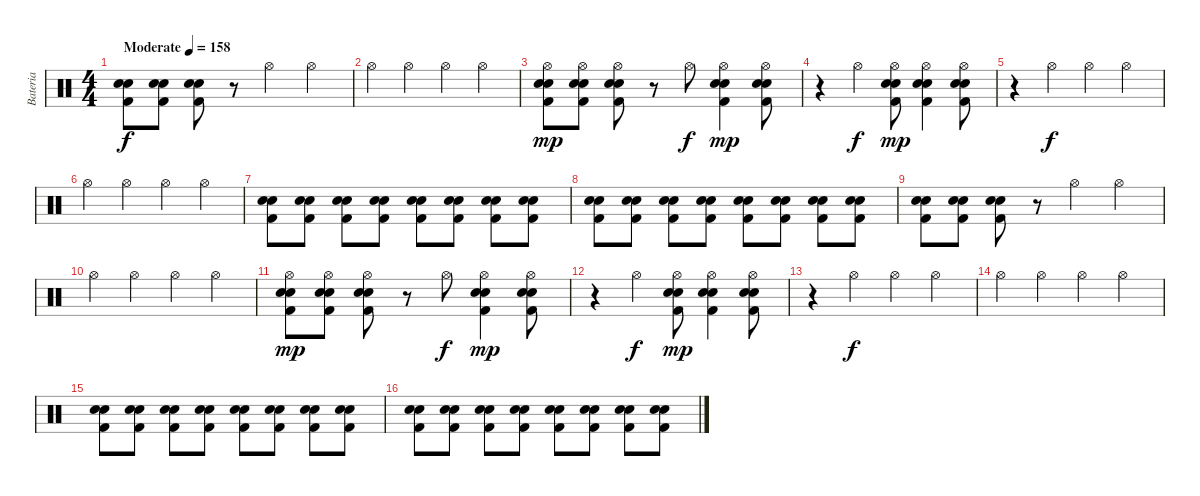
\track ("Bateria" "Bateria") {instrument percussion}
\staff {score}
\articulation defaults
\ts (4 4)
\tempo (158 "Moderate")
\clef neutral
\ks c
("Electric Snare (hit)" "Kick (hit) 2" "Snare (hit) 2").8{dy f} ("Electric Snare (hit)" "Kick (hit) 2" "Snare (hit) 2").8 ("Electric Snare (hit)" "Kick (hit) 2" "Snare (hit) 2").8 r.8 "Hi-Hat (open)".4 "Hi-Hat (open)".4 |
"Hi-Hat (open)".4 "Hi-Hat (open)".4 "Hi-Hat (open)".4 "Hi-Hat (open)".4 |
("Electric Snare (hit)" "Kick (hit) 2" "Snare (hit) 2" "Hi-Hat (open)").8{dy mp} ("Electric Snare (hit)" "Kick (hit) 2" "Snare (hit) 2" "Hi-Hat (open)").8 ("Electric Snare (hit)" "Kick (hit) 2" "Snare (hit) 2" "Hi-Hat (open)").8 r.8 "Hi-Hat (open)".8{dy f} ("Electric Snare (hit)" "Kick (hit) 2" "Snare (hit) 2" "Hi-Hat (open)").4{dy mp} ("Electric Snare (hit)" "Kick (hit) 2" "Snare (hit) 2" "Hi-Hat (open)").8 |
r.4 "Hi-Hat (open)".4{dy f} ("Electric Snare (hit)" "Kick (hit) 2" "Snare (hit) 2" "Hi-Hat (open)").8{dy mp} ("Electric Snare (hit)" "Kick (hit) 2" "Snare (hit) 2" "Hi-Hat (open)").4 ("Electric Snare (hit)" "Kick (hit) 2" "Snare (hit) 2" "Hi-Hat (open)").8 |
r.4 "Hi-Hat (open)".4{dy f} "Hi-Hat (open)".4 "Hi-Hat (open)".4 |
"Hi-Hat (open)".4 "Hi-Hat (open)".4 "Hi-Hat (open)".4 "Hi-Hat (open)".4 |
("Electric Snare (hit)" "Kick (hit) 2" "Snare (hit) 2").8 ("Electric Snare (hit)" "Kick (hit) 2" "Snare (hit) 2").8 ("Electric Snare (hit)" "Kick (hit) 2" "Snare (hit) 2").8 ("Electric Snare (hit)" "Kick (hit) 2" "Snare (hit) 2").8 ("Electric Snare (hit)" "Kick (hit) 2" "Snare (hit) 2").8 ("Electric Snare (hit)" "Kick (hit) 2" "Snare (hit) 2").8 ("Electric Snare (hit)" "Kick (hit) 2" "Snare (hit) 2").8 ("Electric Snare (hit)" "Kick (hit) 2" "Snare (hit) 2").8 |
("Electric Snare (hit)" "Kick (hit) 2" "Snare (hit) 2").8 ("Electric Snare (hit)" "Kick (hit) 2" "Snare (hit) 2").8 ("Electric Snare (hit)" "Kick (hit) 2" "Snare (hit) 2").8 ("Electric Snare (hit)" "Kick (hit) 2" "Snare (hit) 2").8 ("Electric Snare (hit)" "Kick (hit) 2" "Snare (hit) 2").8 ("Electric Snare (hit)" "Kick (hit) 2" "Snare (hit) 2").8 ("Electric Snare (hit)" "Kick (hit) 2" "Snare (hit) 2").8 ("Electric Snare (hit)" "Kick (hit) 2" "Snare (hit) 2").8 |
("Electric Snare (hit)" "Kick (hit) 2" "Snare (hit) 2").8 ("Electric Snare (hit)" "Kick (hit) 2" "Snare (hit) 2").8 ("Electric Snare (hit)" "Kick (hit) 2" "Snare (hit) 2").8 r.8 "Hi-Hat (open)".4 "Hi-Hat (open)".4 |
"Hi-Hat (open)".4 "Hi-Hat (open)".4 "Hi-Hat (open)".4 "Hi-Hat (open)".4 |
("Electric Snare (hit)" "Kick (hit) 2" "Snare (hit) 2" "Hi-Hat (open)").8{dy mp} ("Electric Snare (hit)" "Kick (hit) 2" "Snare (hit) 2" "Hi-Hat (open)").8 ("Electric Snare (hit)" "Kick (hit) 2" "Snare (hit) 2" "Hi-Hat (open)").8 r.8 "Hi-Hat (open)".8{dy f} ("Electric Snare (hit)" "Kick (hit) 2" "Snare (hit) 2" "Hi-Hat (open)").4{dy mp} ("Electric Snare (hit)" "Kick (hit) 2" "Snare (hit) 2" "Hi-Hat (open)").8 |
r.4 "Hi-Hat (open)".4{dy f} ("Electric Snare (hit)" "Kick (hit) 2" "Snare (hit) 2" "Hi-Hat (open)").8{dy mp} ("Electric Snare (hit)" "Kick (hit) 2" "Snare (hit) 2" "Hi-Hat (open)").4 ("Electric Snare (hit)" "Kick (hit) 2" "Snare (hit) 2" "Hi-Hat (open)").8 |
r.4 "Hi-Hat (open)".4{dy f} "Hi-Hat (open)".4 "Hi-Hat (open)".4 |
"Hi-Hat (open)".4 "Hi-Hat (open)".4 "Hi-Hat (open)".4 "Hi-Hat (open)".4 |
("Electric Snare (hit)" "Kick (hit) 2" "Snare (hit) 2").8 ("Electric Snare (hit)" "Kick (hit) 2" "Snare (hit) 2").8 ("Electric Snare (hit)" "Kick (hit) 2" "Snare (hit) 2").8 ("Electric Snare (hit)" "Kick (hit) 2" "Snare (hit) 2").8 ("Electric Snare (hit)" "Kick (hit) 2" "Snare (hit) 2").8 ("Electric Snare (hit)" "Kick (hit) 2" "Snare (hit) 2").8 ("Electric Snare (hit)" "Kick (hit) 2" "Snare (hit) 2").8 ("Electric Snare (hit)" "Kick (hit) 2" "Snare (hit) 2").8 |
("Electric Snare (hit)" "Kick (hit) 2" "Snare (hit) 2").8 ("Electric Snare (hit)" "Kick (hit) 2" "Snare (hit) 2").8 ("Electric Snare (hit)" "Kick (hit) 2" "Snare (hit) 2").8 ("Electric Snare (hit)" "Kick (hit) 2" "Snare (hit) 2").8 ("Electric Snare (hit)" "Kick (hit) 2" "Snare (hit) 2").8 ("Electric Snare (hit)" "Kick (hit) 2" "Snare (hit) 2").8 ("Electric Snare (hit)" "Kick (hit) 2" "Snare (hit) 2").8 ("Electric Snare (hit)" "Kick (hit) 2" "Snare (hit) 2").8
